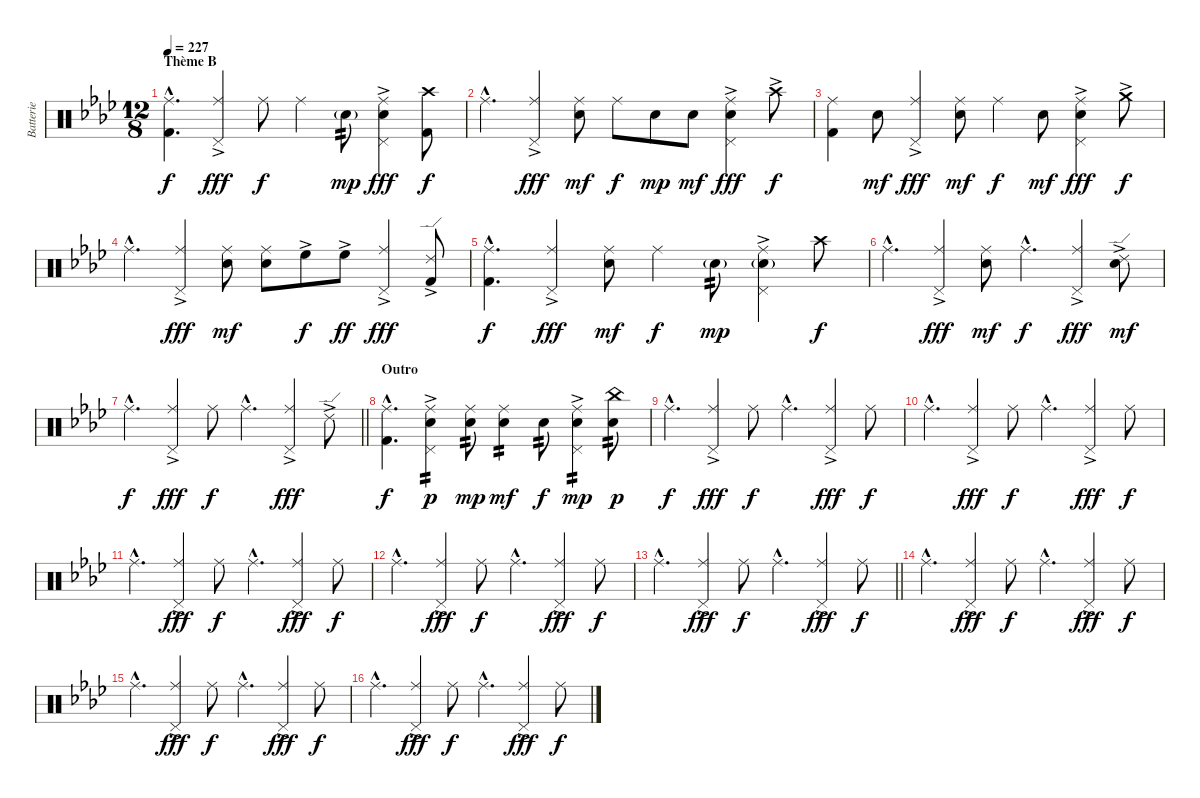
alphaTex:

\track ("Batterie" "Batterie") {instrument percussion}
\staff {score}
\articulation defaults
\ts (12 8)
\section ("" "Thème B")
\tempo 227
\clef neutral
\ks fminor
("Ride (middle)"{hac} "Kick (hit) 2"{hac}).4{d dy f volume 13 balance 8} ("Ride (middle)" "Pedal Hi-Hat (hit)"{ac}).4{dy fff} "Ride (middle)".8{dy f} "Ride (middle)".4 "Snare (hit) 2"{g}.8{tp 2 dy mp} ("Ride (middle)" "Pedal Hi-Hat (hit)"{ac} "Snare (hit) 2").4{dy fff} ("Crash high (hit)" "Kick (hit) 2").8{dy f} |
"Ride (middle)"{hac}.4{d} ("Ride (middle)" "Pedal Hi-Hat (hit)"{ac}).4{dy fff} ("Ride (middle)" "Snare (hit) 2").8{dy mf} "Ride (middle)".8{dy f} "Snare (hit) 2".8{dy mp} "Snare (hit) 2".8{dy mf} ("Ride (middle)" "Pedal Hi-Hat (hit)"{ac} "Snare (hit) 2").4{dy fff} "Crash high (hit)"{ac}.8{dy f} |
("Ride (middle)" "Kick (hit) 2").4 "Snare (hit) 2".8{dy mf} ("Ride (middle)" "Pedal Hi-Hat (hit)"{ac}).4{dy fff} ("Ride (middle)" "Snare (hit) 2").8{dy mf} "Ride (middle)".4{dy f} "Snare (hit) 2".8{dy mf} ("Ride (middle)" "Pedal Hi-Hat (hit)"{ac} "Snare (hit) 2").4{dy fff} "Crash medium (hit)"{ac}.8{dy f} |
"Ride (middle)"{hac}.4{d} ("Ride (middle)" "Pedal Hi-Hat (hit)"{ac}).4{dy fff} ("Ride (middle)" "Snare (hit) 2").8{dy mf} ("Ride (middle)" "Snare (hit) 2").8 "High Floor Tom (hit)"{ac}.8{dy f} "High Floor Tom (hit)"{ac}.8{dy ff} ("Ride (middle)" "Pedal Hi-Hat (hit)"{ac}).4{dy fff} ("Ride (edge) 2"{ac} "Kick (hit) 2").8 |
("Ride (middle)"{hac} "Kick (hit) 2"{hac}).4{d dy f} ("Ride (middle)" "Pedal Hi-Hat (hit)"{ac}).4{dy fff} ("Ride (middle)" "Snare (hit) 2").8{dy mf} "Ride (middle)".4{dy f} "Snare (hit) 2"{g}.8{tp 2 dy mp} ("Ride (middle)" "Pedal Hi-Hat (hit)"{ac} "Snare (hit) 2"{g}).4 "Crash high (hit)".8{dy f} |
"Ride (middle)"{hac}.4{d} ("Ride (middle)" "Pedal Hi-Hat (hit)"{ac}).4{dy fff} ("Ride (middle)" "Snare (hit) 2").8{dy mf} "Ride (middle)"{hac}.4{d dy f} ("Ride (middle)" "Pedal Hi-Hat (hit)"{ac}).4{dy fff} ("Ride (edge) 2"{ac} "Snare (hit) 2").8{dy mf} |
\barLineRight lightlight "Ride (middle)"{hac}.4{d dy f}
("Ride (middle)" "Pedal Hi-Hat (hit)"{ac}).4{dy fff} "Ride (middle)".8{dy f} "Ride (middle)"{hac}.4{d} ("Ride (middle)" "Pedal Hi-Hat (hit)"{ac}).4{dy fff} "Ride (edge) 2"{ac}.8 |
\section ("" "Outro")
("Ride (middle)"{hac} "Kick (hit) 2"{hac}).4{d dy f volume 11 balance 8} ("Ride (middle)" "Pedal Hi-Hat (hit)"{ac} "Snare (hit) 2").4{tp 2 dy p} ("Ride (middle)" "Snare (hit) 2").8{tp 2 dy mp} ("Ride (middle)" "Snare (hit) 2").4{tp 2 dy mf} "Snare (hit) 2".8{tp 2 dy f} ("Ride (middle)" "Pedal Hi-Hat (hit)"{ac} "Snare (hit) 2").4{tp 2 dy mp} ("China (hit)" "Snare (hit) 2").8{tp 2 dy p} |
"Ride (middle)"{hac}.4{d dy f} ("Ride (middle)" "Pedal Hi-Hat (hit)"{ac}).4{dy fff} "Ride (middle)".8{dy f} "Ride (middle)"{hac}.4{d} ("Ride (middle)" "Pedal Hi-Hat (hit)"{ac}).4{dy fff} "Ride (middle)".8{dy f} |
"Ride (middle)"{hac}.4{d} ("Ride (middle)" "Pedal Hi-Hat (hit)"{ac}).4{dy fff} "Ride (middle)".8{dy f} "Ride (middle)"{hac}.4{d} ("Ride (middle)" "Pedal Hi-Hat (hit)"{ac}).4{dy fff} "Ride (middle)".8{dy f} |
"Ride (middle)"{hac}.4{d} ("Ride (middle)" "Pedal Hi-Hat (hit)"{ac}).4{dy fff} "Ride (middle)".8{dy f} "Ride (middle)"{hac}.4{d} ("Ride (middle)" "Pedal Hi-Hat (hit)"{ac}).4{dy fff} "Ride (middle)".8{dy f} |
"Ride (middle)"{hac}.4{d} ("Ride (middle)" "Pedal Hi-Hat (hit)"{ac}).4{dy fff} "Ride (middle)".8{dy f} "Ride (middle)"{hac}.4{d} ("Ride (middle)" "Pedal Hi-Hat (hit)"{ac}).4{dy fff} "Ride (middle)".8{dy f} |
\barLineRight lightlight "Ride (middle)"{hac}.4{d}
("Ride (middle)" "Pedal Hi-Hat (hit)"{ac}).4{dy fff} "Ride (middle)".8{dy f} "Ride (middle)"{hac}.4{d} ("Ride (middle)" "Pedal Hi-Hat (hit)"{ac}).4{dy fff} "Ride (middle)".8{dy f} |
"Ride (middle)"{hac}.4{d volume 6 balance 8} ("Ride (middle)" "Pedal Hi-Hat (hit)"{ac}).4{dy fff} "Ride (middle)".8{dy f} "Ride (middle)"{hac}.4{d} ("Ride (middle)" "Pedal Hi-Hat (hit)"{ac}).4{dy fff} "Ride (middle)".8{dy f} |
"Ride (middle)"{hac}.4{d} ("Ride (middle)" "Pedal Hi-Hat (hit)"{ac}).4{dy fff} "Ride (middle)".8{dy f} "Ride (middle)"{hac}.4{d} ("Ride (middle)" "Pedal Hi-Hat (hit)"{ac}).4{dy fff} "Ride (middle)".8{dy f} |
"Ride (middle)"{hac}.4{d} ("Ride (middle)" "Pedal Hi-Hat (hit)"{ac}).4{dy fff} "Ride (middle)".8{dy f} "Ride (middle)"{hac}.4{d} ("Ride (middle)" "Pedal Hi-Hat (hit)"{ac}).4{dy fff} "Ride (middle)".8{dy f}
